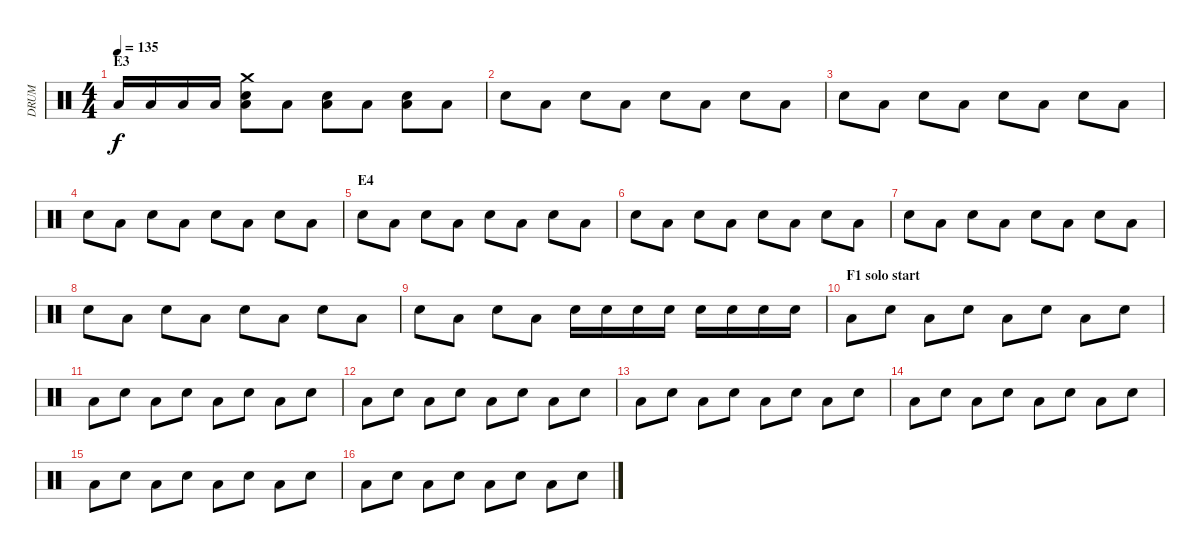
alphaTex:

\track ("DRUM" "DRUM") {instrument percussion}
\staff {score}
\articulation defaults
\ts (4 4)
\section ("" "E3")
\tempo 135
\clef neutral
\ks c "Low Floor Tom (hit)".16{dy f} "Low Floor Tom (hit)".16 "Low Floor Tom (hit)".16 "Low Floor Tom (hit)".16
("Low Floor Tom (hit)" "Electric Snare (hit)" "Crash medium (hit)").8 "Low Floor Tom (hit)".8 ("Low Floor Tom (hit)" "Electric Snare (hit)").8 "Low Floor Tom (hit)".8 ("Low Floor Tom (hit)" "Electric Snare (hit)").8 "Low Floor Tom (hit)".8 |
"Electric Snare (hit)".8 "Low Floor Tom (hit)".8 "Electric Snare (hit)".8 "Low Floor Tom (hit)".8 "Electric Snare (hit)".8 "Low Floor Tom (hit)".8 "Electric Snare (hit)".8 "Low Floor Tom (hit)".8 |
"Electric Snare (hit)".8 "Low Floor Tom (hit)".8 "Electric Snare (hit)".8 "Low Floor Tom (hit)".8 "Electric Snare (hit)".8 "Low Floor Tom (hit)".8 "Electric Snare (hit)".8 "Low Floor Tom (hit)".8 |
"Electric Snare (hit)".8 "Low Floor Tom (hit)".8 "Electric Snare (hit)".8 "Low Floor Tom (hit)".8 "Electric Snare (hit)".8 "Low Floor Tom (hit)".8 "Electric Snare (hit)".8 "Low Floor Tom (hit)".8 |
\section ("" "E4")
"Electric Snare (hit)".8 "Low Floor Tom (hit)".8 "Electric Snare (hit)".8 "Low Floor Tom (hit)".8 "Electric Snare (hit)".8 "Low Floor Tom (hit)".8 "Electric Snare (hit)".8 "Low Floor Tom (hit)".8 |
"Electric Snare (hit)".8 "Low Floor Tom (hit)".8 "Electric Snare (hit)".8 "Low Floor Tom (hit)".8 "Electric Snare (hit)".8 "Low Floor Tom (hit)".8 "Electric Snare (hit)".8 "Low Floor Tom (hit)".8 |
"Electric Snare (hit)".8 "Low Floor Tom (hit)".8 "Electric Snare (hit)".8 "Low Floor Tom (hit)".8 "Electric Snare (hit)".8 "Low Floor Tom (hit)".8 "Electric Snare (hit)".8 "Low Floor Tom (hit)".8 |
"Electric Snare (hit)".8 "Low Floor Tom (hit)".8 "Electric Snare (hit)".8 "Low Floor Tom (hit)".8 "Electric Snare (hit)".8 "Low Floor Tom (hit)".8 "Electric Snare (hit)".8 "Low Floor Tom (hit)".8 |
"Electric Snare (hit)".8 "Low Floor Tom (hit)".8 "Electric Snare (hit)".8 "Low Floor Tom (hit)".8 "Electric Snare (hit)".16 "Electric Snare (hit)".16 "Electric Snare (hit)".16 "Electric Snare (hit)".16 "Electric Snare (hit)".16 "Electric Snare (hit)".16 "Electric Snare (hit)".16 "Electric Snare (hit)".16 |
\section ("" "F1 solo start")
"Low Floor Tom (hit)".8 "Electric Snare (hit)".8 "Low Floor Tom (hit)".8 "Electric Snare (hit)".8 "Low Floor Tom (hit)".8 "Electric Snare (hit)".8 "Low Floor Tom (hit)".8 "Electric Snare (hit)".8 |
"Low Floor Tom (hit)".8 "Electric Snare (hit)".8 "Low Floor Tom (hit)".8 "Electric Snare (hit)".8 "Low Floor Tom (hit)".8 "Electric Snare (hit)".8 "Low Floor Tom (hit)".8 "Electric Snare (hit)".8 |
"Low Floor Tom (hit)".8 "Electric Snare (hit)".8 "Low Floor Tom (hit)".8 "Electric Snare (hit)".8 "Low Floor Tom (hit)".8 "Electric Snare (hit)".8 "Low Floor Tom (hit)".8 "Electric Snare (hit)".8 |
"Low Floor Tom (hit)".8 "Electric Snare (hit)".8 "Low Floor Tom (hit)".8 "Electric Snare (hit)".8 "Low Floor Tom (hit)".8 "Electric Snare (hit)".8 "Low Floor Tom (hit)".8 "Electric Snare (hit)".8 |
"Low Floor Tom (hit)".8 "Electric Snare (hit)".8 "Low Floor Tom (hit)".8 "Electric Snare (hit)".8 "Low Floor Tom (hit)".8 "Electric Snare (hit)".8 "Low Floor Tom (hit)".8 "Electric Snare (hit)".8 |
"Low Floor Tom (hit)".8 "Electric Snare (hit)".8 "Low Floor Tom (hit)".8 "Electric Snare (hit)".8 "Low Floor Tom (hit)".8 "Electric Snare (hit)".8 "Low Floor Tom (hit)".8 "Electric Snare (hit)".8 |
"Low Floor Tom (hit)".8 "Electric Snare (hit)".8 "Low Floor Tom (hit)".8 "Electric Snare (hit)".8 "Low Floor Tom (hit)".8 "Electric Snare (hit)".8 "Low Floor Tom (hit)".8 "Electric Snare (hit)".8
